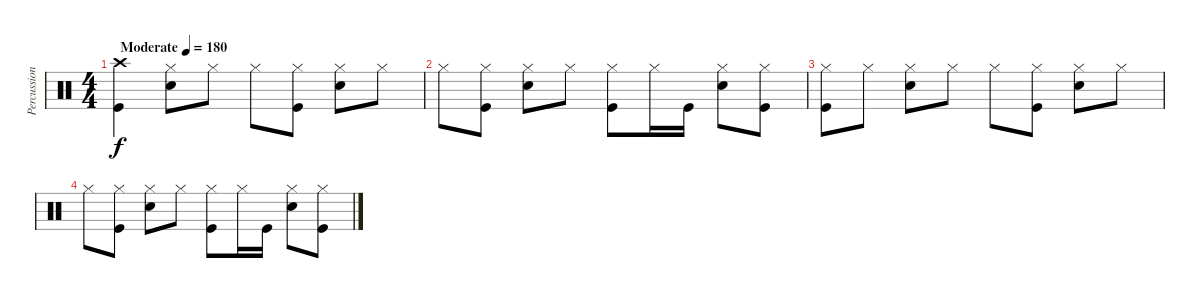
\track ("Percussion" "Percussion") {instrument percussion}
\staff {score}
\articulation defaults
\ts (4 4)
\tempo (180 "Moderate")
\clef neutral
\ks c
("Crash high (hit)" "Kick (hit)").4{dy f} ("Snare (hit) 2" "Hi-Hat (closed)").8 "Hi-Hat (closed)".8 "Hi-Hat (closed)".8 ("Hi-Hat (closed)" "Kick (hit)").8 ("Snare (hit) 2" "Hi-Hat (closed)").8 "Hi-Hat (closed)".8 |
"Hi-Hat (closed)".8 ("Hi-Hat (closed)" "Kick (hit)").8 ("Snare (hit) 2" "Hi-Hat (closed)").8 "Hi-Hat (closed)".8 ("Hi-Hat (closed)" "Kick (hit)").8 "Hi-Hat (closed)".16 "Kick (hit)".16 ("Snare (hit) 2" "Hi-Hat (closed)").8 ("Hi-Hat (closed)" "Kick (hit)").8 |
("Hi-Hat (closed)" "Kick (hit)").8 "Hi-Hat (closed)".8 ("Snare (hit) 2" "Hi-Hat (closed)").8 "Hi-Hat (closed)".8 "Hi-Hat (closed)".8 ("Hi-Hat (closed)" "Kick (hit)").8 ("Snare (hit) 2" "Hi-Hat (closed)").8 "Hi-Hat (closed)".8 |
"Hi-Hat (closed)".8 ("Hi-Hat (closed)" "Kick (hit)").8 ("Snare (hit) 2" "Hi-Hat (closed)").8 "Hi-Hat (closed)".8 ("Hi-Hat (closed)" "Kick (hit)").8 "Hi-Hat (closed)".16 "Kick (hit)".16 ("Snare (hit) 2" "Hi-Hat (closed)").8 ("Hi-Hat (closed)" "Kick (hit)").8
